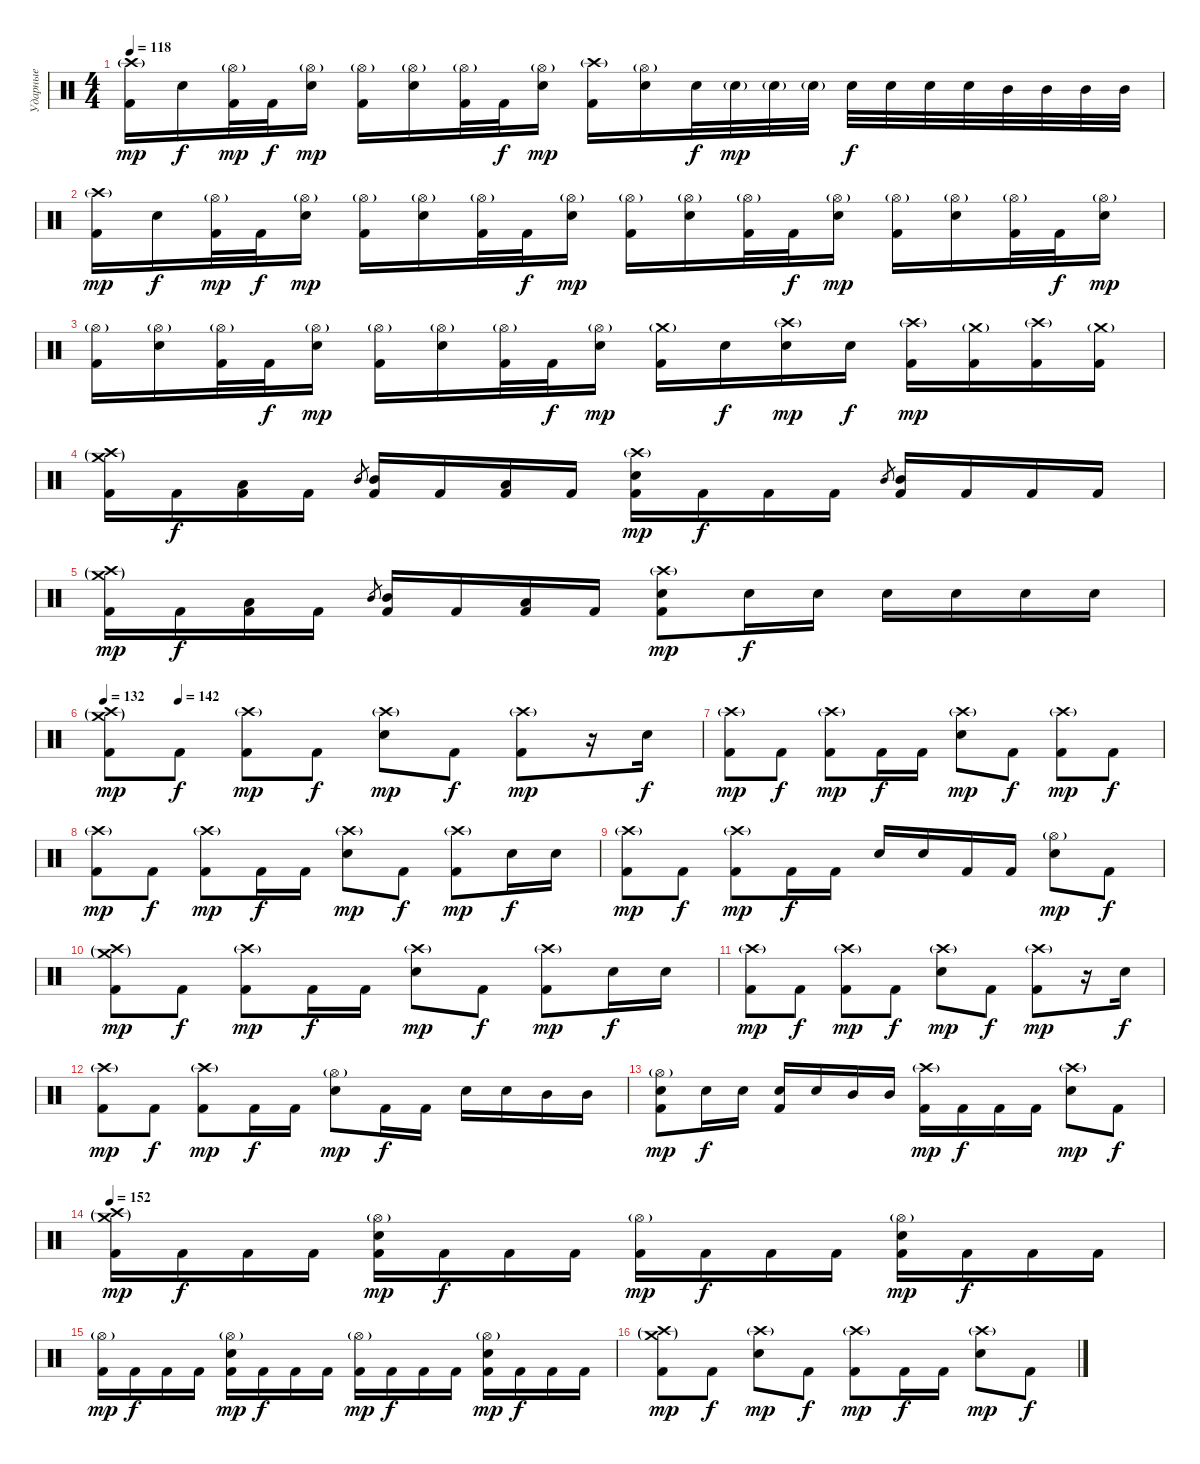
\track ("Ударные" "Ударные") {instrument percussion}
\staff {score}
\articulation defaults
\ts (4 4)
\tempo 118
\clef neutral
\ks c
("Crash high (hit)"{g} "Kick (hit) 2").16{dy mp} "Electric Snare (hit)".16{dy f} ("Hi-Hat (open)"{g} "Kick (hit) 2").32{dy mp} "Kick (hit) 2".32{dy f} ("Hi-Hat (open)"{g} "Electric Snare (hit)").16{dy mp} ("Hi-Hat (open)"{g} "Kick (hit) 2").16 ("Hi-Hat (open)"{g} "Electric Snare (hit)").16 ("Hi-Hat (open)"{g} "Kick (hit) 2").32 "Kick (hit) 2".32{dy f} ("Hi-Hat (open)"{g} "Electric Snare (hit)").16{dy mp} ("Crash high (hit)"{g} "Kick (hit) 2").16 ("Hi-Hat (open)"{g} "Electric Snare (hit)").16 "Electric Snare (hit)".32{dy f} "Electric Snare (hit)"{g}.32{dy mp} "Electric Snare (hit)"{g}.32 "Electric Snare (hit)"{g}.32 "Electric Snare (hit)".32{dy f} "Electric Snare (hit)".32 "Electric Snare (hit)".32 "Electric Snare (hit)".32 "Mid Tom (hit)".32 "Mid Tom (hit)".32 "Mid Tom (hit)".32 "Mid Tom (hit)".32 |
("Crash high (hit)"{g} "Kick (hit) 2").16{dy mp} "Electric Snare (hit)".16{dy f} ("Hi-Hat (open)"{g} "Kick (hit) 2").32{dy mp} "Kick (hit) 2".32{dy f} ("Hi-Hat (open)"{g} "Electric Snare (hit)").16{dy mp} ("Hi-Hat (open)"{g} "Kick (hit) 2").16 ("Hi-Hat (open)"{g} "Electric Snare (hit)").16 ("Hi-Hat (open)"{g} "Kick (hit) 2").32 "Kick (hit) 2".32{dy f} ("Hi-Hat (open)"{g} "Electric Snare (hit)").16{dy mp} ("Hi-Hat (open)"{g} "Kick (hit) 2").16 ("Hi-Hat (open)"{g} "Electric Snare (hit)").16 ("Hi-Hat (open)"{g} "Kick (hit) 2").32 "Kick (hit) 2".32{dy f} ("Hi-Hat (open)"{g} "Electric Snare (hit)").16{dy mp} ("Hi-Hat (open)"{g} "Kick (hit) 2").16 ("Hi-Hat (open)"{g} "Electric Snare (hit)").16 ("Hi-Hat (open)"{g} "Kick (hit) 2").32 "Kick (hit) 2".32{dy f} ("Hi-Hat (open)"{g} "Electric Snare (hit)").16{dy mp} |
("Hi-Hat (open)"{g} "Kick (hit) 2").16 ("Hi-Hat (open)"{g} "Electric Snare (hit)").16 ("Hi-Hat (open)"{g} "Kick (hit) 2").32 "Kick (hit) 2".32{dy f} ("Hi-Hat (open)"{g} "Electric Snare (hit)").16{dy mp} ("Hi-Hat (open)"{g} "Kick (hit) 2").16 ("Hi-Hat (open)"{g} "Electric Snare (hit)").16 ("Hi-Hat (open)"{g} "Kick (hit) 2").32 "Kick (hit) 2".32{dy f} ("Hi-Hat (open)"{g} "Electric Snare (hit)").16{dy mp} ("Crash medium (hit)"{g} "Kick (hit) 2").16 "Electric Snare (hit)".16{dy f} ("Crash high (hit)"{g} "Electric Snare (hit)").16{dy mp} "Electric Snare (hit)".16{dy f} ("Crash high (hit)"{g} "Kick (hit) 2").16{dy mp} ("Crash medium (hit)"{g} "Kick (hit) 2").16 ("Crash high (hit)"{g} "Kick (hit) 2").16 ("Crash medium (hit)"{g} "Kick (hit) 2").16 |
("Crash high (hit)"{g} "Crash medium (hit)"{g} "Kick (hit) 2").16 "Kick (hit) 2".16{dy f} ("Low Tom (hit)" "Kick (hit) 2").16 "Kick (hit) 2".16 "Mid Tom (hit)".8{gr} ("Mid Tom (hit)" "Kick (hit) 2").16 "Kick (hit) 2".16 ("Low Tom (hit)" "Kick (hit) 2").16 "Kick (hit) 2".16 ("Crash high (hit)"{g} "Electric Snare (hit)" "Kick (hit) 2").16{dy mp} "Kick (hit) 2".16{dy f} "Kick (hit) 2".16 "Kick (hit) 2".16 "Mid Tom (hit)".8{gr} ("Mid Tom (hit)" "Kick (hit) 2").16 "Kick (hit) 2".16 "Kick (hit) 2".16 "Kick (hit) 2".16 |
("Crash high (hit)"{g} "Crash medium (hit)"{g} "Kick (hit) 2").16{dy mp} "Kick (hit) 2".16{dy f} ("Low Tom (hit)" "Kick (hit) 2").16 "Kick (hit) 2".16 "Mid Tom (hit)".8{gr} ("Mid Tom (hit)" "Kick (hit) 2").16 "Kick (hit) 2".16 ("Low Tom (hit)" "Kick (hit) 2").16 "Kick (hit) 2".16 ("Crash high (hit)"{g} "Electric Snare (hit)" "Kick (hit) 2").8{dy mp} "Electric Snare (hit)".16{dy f} "Electric Snare (hit)".16 "Electric Snare (hit)".16 "Electric Snare (hit)".16 "Electric Snare (hit)".16 "Electric Snare (hit)".16 |
\tempo 132
\tempo (142 0.125)
("Crash high (hit)"{g} "Crash medium (hit)"{g} "Kick (hit) 2").8{dy mp} "Kick (hit) 2".8{dy f} ("Crash high (hit)"{g} "Kick (hit) 2").8{dy mp} "Kick (hit) 2".8{dy f} ("Crash high (hit)"{g} "Electric Snare (hit)").8{dy mp} "Kick (hit) 2".8{dy f} ("Crash high (hit)"{g} "Kick (hit) 2").8{dy mp} r.16 "Electric Snare (hit)".16{dy f} |
("Crash high (hit)"{g} "Kick (hit) 2").8{dy mp} "Kick (hit) 2".8{dy f} ("Crash high (hit)"{g} "Kick (hit) 2").8{dy mp} "Kick (hit) 2".16{dy f} "Kick (hit) 2".16 ("Crash high (hit)"{g} "Electric Snare (hit)").8{dy mp} "Kick (hit) 2".8{dy f} ("Crash high (hit)"{g} "Kick (hit) 2").8{dy mp} "Kick (hit) 2".8{dy f} |
("Crash high (hit)"{g} "Kick (hit) 2").8{dy mp} "Kick (hit) 2".8{dy f} ("Crash high (hit)"{g} "Kick (hit) 2").8{dy mp} "Kick (hit) 2".16{dy f} "Kick (hit) 2".16 ("Crash high (hit)"{g} "Electric Snare (hit)").8{dy mp} "Kick (hit) 2".8{dy f} ("Crash high (hit)"{g} "Kick (hit) 2").8{dy mp} "Electric Snare (hit)".16{dy f} "Electric Snare (hit)".16 |
("Crash high (hit)"{g} "Kick (hit) 2").8{dy mp} "Kick (hit) 2".8{dy f} ("Crash high (hit)"{g} "Kick (hit) 2").8{dy mp} "Kick (hit) 2".16{dy f} "Kick (hit) 2".16 "Electric Snare (hit)".16 "Electric Snare (hit)".16 "Kick (hit) 2".16 "Kick (hit) 2".16 ("Hi-Hat (open)"{g} "Electric Snare (hit)").8{dy mp} "Kick (hit) 2".8{dy f} |
("Crash medium (hit)"{g} "Crash high (hit)"{g} "Kick (hit) 2").8{dy mp} "Kick (hit) 2".8{dy f} ("Crash high (hit)"{g} "Kick (hit) 2").8{dy mp} "Kick (hit) 2".16{dy f} "Kick (hit) 2".16 ("Crash high (hit)"{g} "Electric Snare (hit)").8{dy mp} "Kick (hit) 2".8{dy f} ("Crash high (hit)"{g} "Kick (hit) 2").8{dy mp} "Electric Snare (hit)".16{dy f} "Electric Snare (hit)".16 |
("Crash high (hit)"{g} "Kick (hit) 2").8{dy mp} "Kick (hit) 2".8{dy f} ("Crash high (hit)"{g} "Kick (hit) 2").8{dy mp} "Kick (hit) 2".8{dy f} ("Crash high (hit)"{g} "Electric Snare (hit)").8{dy mp} "Kick (hit) 2".8{dy f} ("Crash high (hit)"{g} "Kick (hit) 2").8{dy mp} r.16 "Electric Snare (hit)".16{dy f} |
("Crash high (hit)"{g} "Kick (hit) 2").8{dy mp} "Kick (hit) 2".8{dy f} ("Crash high (hit)"{g} "Kick (hit) 2").8{dy mp} "Kick (hit) 2".16{dy f} "Kick (hit) 2".16 ("Hi-Hat (open)"{g} "Electric Snare (hit)").8{dy mp} "Kick (hit) 2".16{dy f} "Kick (hit) 2".16 "Electric Snare (hit)".16 "Electric Snare (hit)".16 "Mid Tom (hit)".16 "Mid Tom (hit)".16 |
("Hi-Hat (open)"{g} "Electric Snare (hit)" "Kick (hit) 2").8{dy mp} "Electric Snare (hit)".16{dy f} "Electric Snare (hit)".16 ("Electric Snare (hit)" "Kick (hit) 2").16 "Electric Snare (hit)".16 "Mid Tom (hit)".16 "Mid Tom (hit)".16 ("Crash high (hit)"{g} "Kick (hit) 2").16{dy mp} "Kick (hit) 2".16{dy f} "Kick (hit) 2".16 "Kick (hit) 2".16 ("Crash high (hit)"{g} "Electric Snare (hit)").8{dy mp} "Kick (hit) 2".8{dy f} |
\tempo 152
("Crash high (hit)"{g} "Crash medium (hit)"{g} "Kick (hit) 2").16{dy mp} "Kick (hit) 2".16{dy f} "Kick (hit) 2".16 "Kick (hit) 2".16 ("Hi-Hat (open)"{g} "Electric Snare (hit)" "Kick (hit) 2").16{dy mp} "Kick (hit) 2".16{dy f} "Kick (hit) 2".16 "Kick (hit) 2".16 ("Hi-Hat (open)"{g} "Kick (hit) 2").16{dy mp} "Kick (hit) 2".16{dy f} "Kick (hit) 2".16 "Kick (hit) 2".16 ("Hi-Hat (open)"{g} "Electric Snare (hit)" "Kick (hit) 2").16{dy mp} "Kick (hit) 2".16{dy f} "Kick (hit) 2".16 "Kick (hit) 2".16 |
("Hi-Hat (open)"{g} "Kick (hit) 2").16{dy mp} "Kick (hit) 2".16{dy f} "Kick (hit) 2".16 "Kick (hit) 2".16 ("Hi-Hat (open)"{g} "Electric Snare (hit)" "Kick (hit) 2").16{dy mp} "Kick (hit) 2".16{dy f} "Kick (hit) 2".16 "Kick (hit) 2".16 ("Hi-Hat (open)"{g} "Kick (hit) 2").16{dy mp} "Kick (hit) 2".16{dy f} "Kick (hit) 2".16 "Kick (hit) 2".16 ("Hi-Hat (open)"{g} "Electric Snare (hit)" "Kick (hit) 2").16{dy mp} "Kick (hit) 2".16{dy f} "Kick (hit) 2".16 "Kick (hit) 2".16 |
("Crash high (hit)"{g} "Crash medium (hit)"{g} "Kick (hit) 2").8{dy mp} "Kick (hit) 2".8{dy f} ("Crash high (hit)"{g} "Electric Snare (hit)").8{dy mp} "Kick (hit) 2".8{dy f} ("Crash high (hit)"{g} "Kick (hit) 2").8{dy mp} "Kick (hit) 2".16{dy f} "Kick (hit) 2".16 ("Crash high (hit)"{g} "Electric Snare (hit)").8{dy mp} "Kick (hit) 2".8{dy f}
